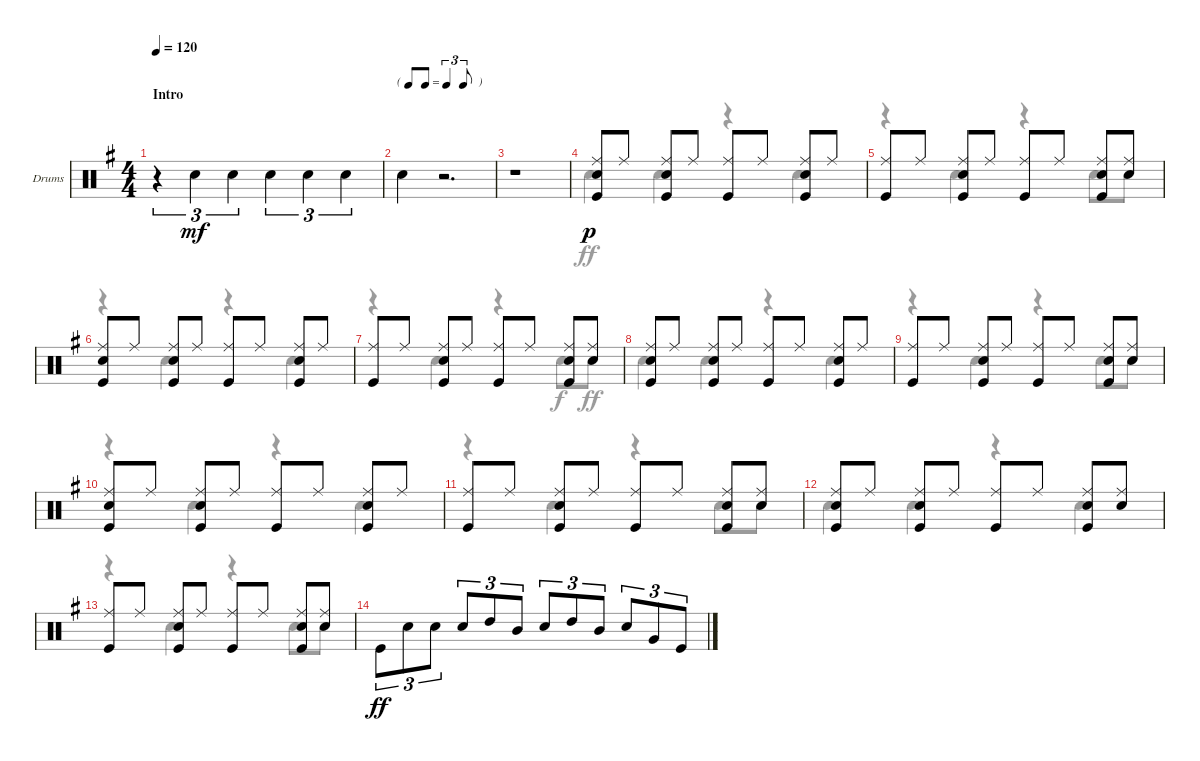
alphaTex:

\defaultSystemsLayout 4
\bracketExtendMode groupsimilarinstruments
\firstSystemTrackNameOrientation horizontal
\otherSystemsTrackNameOrientation horizontal
\track ("Drumkit" "Drums") {instrument percussion}
\staff {score}
\articulation defaults
\voice
\ts (4 4)
\section ("" "Intro")
\tempo 120
\clef neutral
\scale
0.504425
\ks g
r.4{tu (3 2) dy mf} "Snare (hit) 2".4{tu (3 2)} "Snare (hit) 2".4{tu (3 2)} "Snare (hit) 2".4{tu (3 2)} "Snare (hit) 2".4{tu (3 2)} "Snare (hit) 2".4{tu (3 2)} |
\tf triplet8th
\scale
0.247788 "Snare (hit) 2".4 r.2{d} |
\scale
0.247788 r.1 |
\scale
0.333333 ("Kick (hit)" "Snare (hit) 2" "Ride (middle)").8{dy p} "Ride (middle)".8 ("Snare (hit) 2" "Kick (hit)" "Ride (middle)").8 "Ride (middle)".8 ("Kick (hit)" "Ride (middle)").8 "Ride (middle)".8 ("Snare (hit) 2" "Kick (hit)" "Ride (middle)").8 "Ride (middle)".8 |
\scale
0.333333 ("Kick (hit)" "Ride (middle)").8 "Ride (middle)".8 ("Snare (hit) 2" "Kick (hit)" "Ride (middle)").8 "Ride (middle)".8 ("Kick (hit)" "Ride (middle)").8 "Ride (middle)".8 ("Snare (hit) 2" "Kick (hit)" "Ride (middle)").8 ("Snare (hit) 2" "Ride (middle)").8 |
\scale
0.333333 ("Kick (hit)" "Snare (hit) 2" "Ride (middle)").8 "Ride (middle)".8 ("Snare (hit) 2" "Kick (hit)" "Ride (middle)").8 "Ride (middle)".8 ("Kick (hit)" "Ride (middle)").8 "Ride (middle)".8 ("Snare (hit) 2" "Kick (hit)" "Ride (middle)").8 "Ride (middle)".8 |
\scale
0.333333 ("Kick (hit)" "Ride (middle)").8 "Ride (middle)".8 ("Snare (hit) 2" "Kick (hit)" "Ride (middle)").8 "Ride (middle)".8 ("Kick (hit)" "Ride (middle)").8 "Ride (middle)".8 ("Snare (hit) 2" "Kick (hit)" "Ride (middle)").8 ("Snare (hit) 2" "Ride (middle)").8 |
\scale
0.333333 ("Kick (hit)" "Snare (hit) 2" "Ride (middle)").8 "Ride (middle)".8 ("Snare (hit) 2" "Kick (hit)" "Ride (middle)").8 "Ride (middle)".8 ("Kick (hit)" "Ride (middle)").8 "Ride (middle)".8 ("Snare (hit) 2" "Kick (hit)" "Ride (middle)").8 "Ride (middle)".8 |
\scale
0.333333 ("Kick (hit)" "Ride (middle)").8 "Ride (middle)".8 ("Snare (hit) 2" "Kick (hit)" "Ride (middle)").8 "Ride (middle)".8 ("Kick (hit)" "Ride (middle)").8 "Ride (middle)".8 ("Snare (hit) 2" "Kick (hit)" "Ride (middle)").8 ("Snare (hit) 2" "Ride (middle)").8 |
\scale
0.333333 ("Kick (hit)" "Snare (hit) 2" "Ride (middle)").8 "Ride (middle)".8 ("Snare (hit) 2" "Kick (hit)" "Ride (middle)").8 "Ride (middle)".8 ("Kick (hit)" "Ride (middle)").8 "Ride (middle)".8 ("Snare (hit) 2" "Kick (hit)" "Ride (middle)").8 "Ride (middle)".8 |
\scale
0.333333 ("Kick (hit)" "Ride (middle)").8 "Ride (middle)".8 ("Snare (hit) 2" "Kick (hit)" "Ride (middle)").8 "Ride (middle)".8 ("Kick (hit)" "Ride (middle)").8 "Ride (middle)".8 ("Snare (hit) 2" "Kick (hit)" "Ride (middle)").8 ("Snare (hit) 2" "Ride (middle)").8 |
\scale
0.333333 ("Kick (hit)" "Snare (hit) 2" "Ride (middle)").8 "Ride (middle)".8 ("Snare (hit) 2" "Kick (hit)" "Ride (middle)").8 "Ride (middle)".8 ("Kick (hit)" "Ride (middle)").8 "Ride (middle)".8 ("Snare (hit) 2" "Kick (hit)" "Ride (middle)").8 ("Ride (middle)" "Snare (hit) 2").8 |
("Kick (hit)" "Ride (middle)").8 "Ride (middle)".8 ("Snare (hit) 2" "Kick (hit)" "Ride (middle)").8 "Ride (middle)".8 ("Kick (hit)" "Ride (middle)").8 "Ride (middle)".8 ("Snare (hit) 2" "Kick (hit)" "Ride (middle)").8 ("Snare (hit) 2" "Ride (middle)").8 |
"Kick (hit)".8{tu (3 2) dy ff} "Snare (hit) 2".8{tu (3 2)} "Snare (hit) 2".8{tu (3 2)} "Snare (hit) 2".8{tu (3 2) beam invert} "High Tom (hit)".8{tu (3 2)} "Mid Tom (hit)".8{tu (3 2)} "Snare (hit) 2".8{tu (3 2) beam invert} "High Tom (hit)".8{tu (3 2)} "Mid Tom (hit)".8{tu (3 2)} "Snare (hit) 2".8{tu (3 2)} "Very Low Tom (hit)".8{tu (3 2)} "Kick (hit)".8{tu (3 2)} |
\voice
\clef neutral
\ottava regular
\simile none
\scale
0.504425
\ks g
|
\scale
0.247788 |
\scale
0.247788 |
\scale
0.333333 "Snare (hit) 2".4 "Snare (hit) 2".4 r.4 "Snare (hit) 2".4{dy ff} |
\scale
0.333333 r.4 "Snare (hit) 2".4 r.4 "Snare (hit) 2".8 "Snare (hit) 2".8 |
\scale
0.333333 r.4 "Snare (hit) 2".4 r.4 "Snare (hit) 2".4 |
\scale
0.333333 r.4 "Snare (hit) 2".4 r.4 "Snare (hit) 2".8{dy f} "Snare (hit) 2".8{dy ff} |
\scale
0.333333 "Snare (hit) 2".4 "Snare (hit) 2".4 r.4 "Snare (hit) 2".4 |
\scale
0.333333 r.4 "Snare (hit) 2".4 r.4 "Snare (hit) 2".8 "Snare (hit) 2".8 |
\scale
0.333333 r.4 "Snare (hit) 2".4 r.4 "Snare (hit) 2".4 |
\scale
0.333333 r.4 "Snare (hit) 2".4 r.4 "Snare (hit) 2".8 "Snare (hit) 2".8 |
\scale
0.333333 "Snare (hit) 2".4 "Snare (hit) 2".4 r.4 "Snare (hit) 2".4 |
r.4 "Snare (hit) 2".4 r.4 "Snare (hit) 2".8 "Snare (hit) 2".8 |
|
